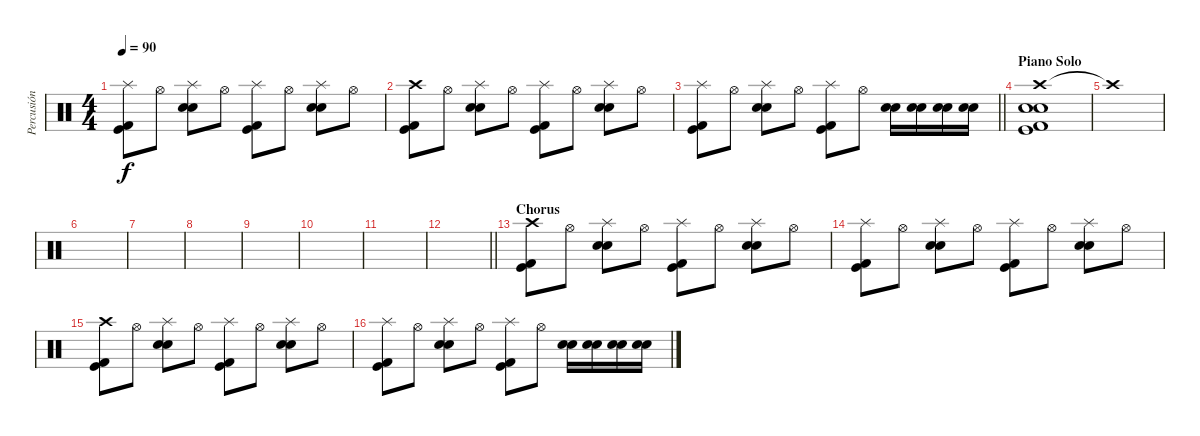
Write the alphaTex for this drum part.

\track ("Percusión" "Percusión") {instrument percussion}
\staff {score}
\articulation defaults
\ts (4 4)
\tempo 90
\clef neutral
\ks c
("Splash (hit)" "Kick (hit) 2" "Kick (hit)").8{dy f} "Hi-Hat (open)".8 ("Splash (hit)" "Electric Snare (hit)" "Snare (hit) 2").8 "Hi-Hat (open)".8 ("Splash (hit)" "Kick (hit) 2" "Kick (hit)").8 "Hi-Hat (open)".8 ("Splash (hit)" "Electric Snare (hit)" "Snare (hit) 2").8 "Hi-Hat (open)".8 |
("Crash high (hit)" "Kick (hit) 2" "Kick (hit)").8 "Hi-Hat (open)".8 ("Splash (hit)" "Electric Snare (hit)" "Snare (hit) 2").8 "Hi-Hat (open)".8 ("Splash (hit)" "Kick (hit) 2" "Kick (hit)").8 "Hi-Hat (open)".8 ("Splash (hit)" "Electric Snare (hit)" "Snare (hit) 2").8 "Hi-Hat (open)".8 |
\barLineRight lightlight
("Splash (hit)" "Kick (hit) 2" "Kick (hit)").8 "Hi-Hat (open)".8 ("Splash (hit)" "Electric Snare (hit)" "Snare (hit) 2").8 "Hi-Hat (open)".8 ("Splash (hit)" "Kick (hit) 2" "Kick (hit)").8 "Hi-Hat (open)".8 ("Electric Snare (hit)" "Snare (hit) 2").16 ("Electric Snare (hit)" "Snare (hit) 2").16 ("Electric Snare (hit)" "Snare (hit) 2").16 ("Electric Snare (hit)" "Snare (hit) 2").16 |
\section ("" "Piano Solo")
("Crash high (hit)" "Electric Snare (hit)" "Snare (hit) 2" "Kick (hit) 2" "Kick (hit)").1 |
"Crash high (hit)"{t}.1 |
|
|
|
|
|
|
\barLineRight lightlight
|
\section ("" "Chorus")
("Crash high (hit)" "Kick (hit) 2" "Kick (hit)").8 "Hi-Hat (open)".8 ("Splash (hit)" "Electric Snare (hit)" "Snare (hit) 2").8 "Hi-Hat (open)".8 ("Splash (hit)" "Kick (hit) 2" "Kick (hit)").8 "Hi-Hat (open)".8 ("Splash (hit)" "Electric Snare (hit)" "Snare (hit) 2").8 "Hi-Hat (open)".8 |
("Splash (hit)" "Kick (hit) 2" "Kick (hit)").8 "Hi-Hat (open)".8 ("Splash (hit)" "Electric Snare (hit)" "Snare (hit) 2").8 "Hi-Hat (open)".8 ("Splash (hit)" "Kick (hit) 2" "Kick (hit)").8 "Hi-Hat (open)".8 ("Splash (hit)" "Electric Snare (hit)" "Snare (hit) 2").8 "Hi-Hat (open)".8 |
("Crash high (hit)" "Kick (hit) 2" "Kick (hit)").8 "Hi-Hat (open)".8 ("Splash (hit)" "Electric Snare (hit)" "Snare (hit) 2").8 "Hi-Hat (open)".8 ("Splash (hit)" "Kick (hit) 2" "Kick (hit)").8 "Hi-Hat (open)".8 ("Splash (hit)" "Electric Snare (hit)" "Snare (hit) 2").8 "Hi-Hat (open)".8 |
("Splash (hit)" "Kick (hit) 2" "Kick (hit)").8 "Hi-Hat (open)".8 ("Splash (hit)" "Electric Snare (hit)" "Snare (hit) 2").8 "Hi-Hat (open)".8 ("Splash (hit)" "Kick (hit) 2" "Kick (hit)").8 "Hi-Hat (open)".8 ("Electric Snare (hit)" "Snare (hit) 2").16 ("Electric Snare (hit)" "Snare (hit) 2").16 ("Electric Snare (hit)" "Snare (hit) 2").16 ("Electric Snare (hit)" "Snare (hit) 2").16
